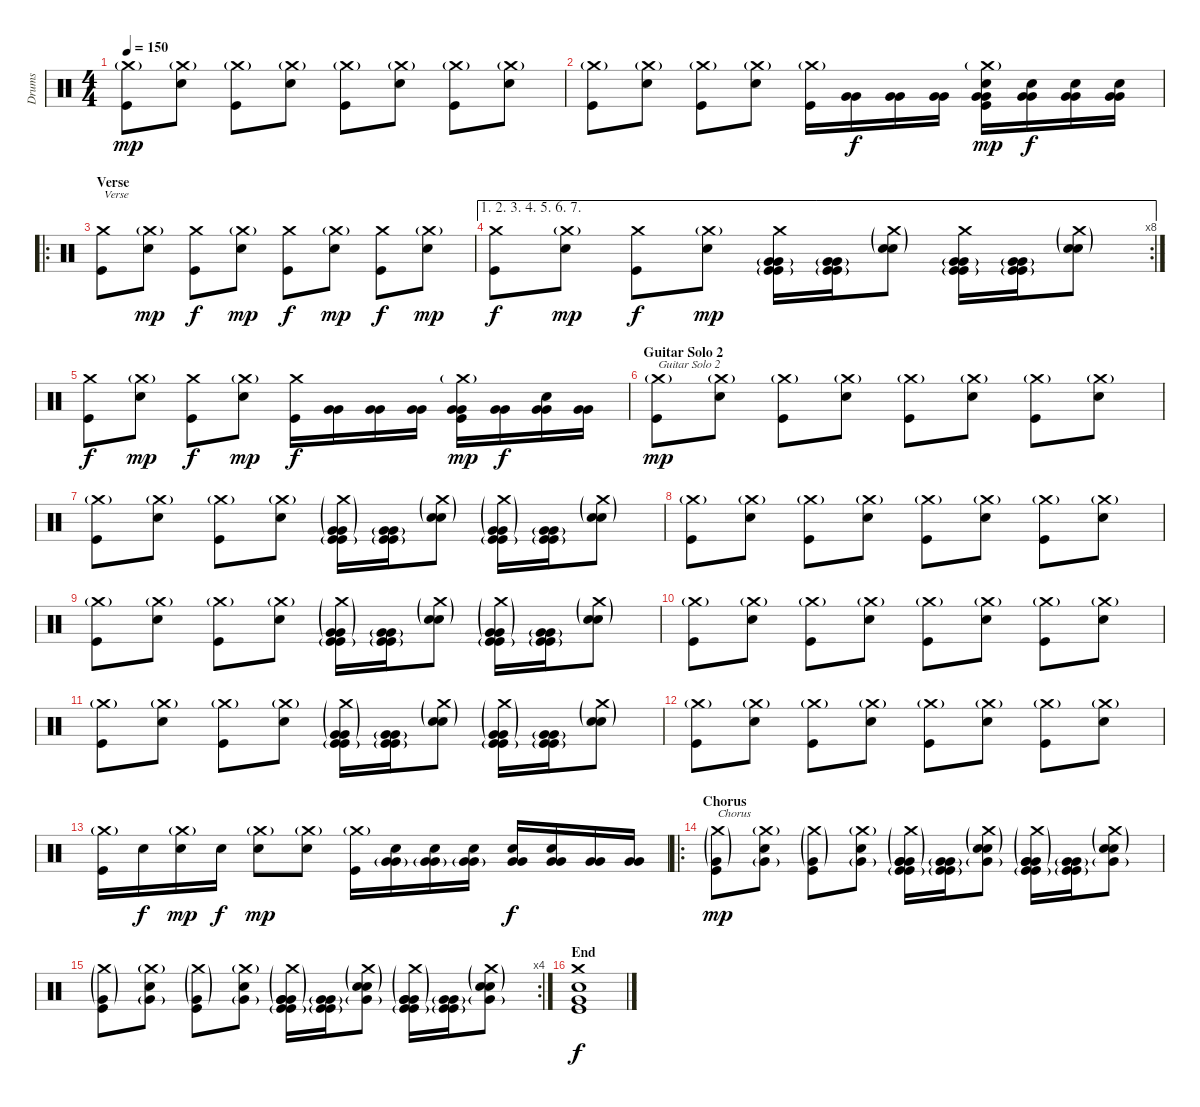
\track ("Drums" "Drums") {instrument percussion}
\staff {score}
\articulation defaults
\ts (4 4)
\tempo 150
\clef neutral
\ks c
("Crash medium (hit)"{g} "Kick (hit)").8{dy mp} ("Crash medium (hit)"{g} "Snare (hit) 2").8 ("Crash medium (hit)"{g} "Kick (hit)").8 ("Crash medium (hit)"{g} "Snare (hit) 2").8 ("Crash medium (hit)"{g} "Kick (hit)").8 ("Crash medium (hit)"{g} "Snare (hit) 2").8 ("Crash medium (hit)"{g} "Kick (hit)").8 ("Crash medium (hit)"{g} "Snare (hit) 2").8 |
("Crash medium (hit)"{g} "Kick (hit)").8 ("Crash medium (hit)"{g} "Snare (hit) 2").8 ("Crash medium (hit)"{g} "Kick (hit)").8 ("Crash medium (hit)"{g} "Snare (hit) 2").8 ("Crash medium (hit)"{g} "Kick (hit)").16 ("Very Low Tom (hit)" "Very Low Tom (hit)").16{dy f} ("Very Low Tom (hit)" "Very Low Tom (hit)").16 ("Very Low Tom (hit)" "Very Low Tom (hit)").16 ("Snare (hit) 2" "Crash medium (hit)"{g} "Very Low Tom (hit)" "Very Low Tom (hit)" "Kick (hit)").16{dy mp} ("Snare (hit) 2" "Very Low Tom (hit)" "Very Low Tom (hit)").16{dy f} ("Very Low Tom (hit)" "Very Low Tom (hit)" "Snare (hit) 2").16 ("Snare (hit) 2" "Very Low Tom (hit)" "Very Low Tom (hit)").16 |
\ro
\section ("" "Verse")
("Crash medium (hit)" "Kick (hit)").8{txt "Verse"} ("Crash medium (hit)"{g} "Snare (hit) 2").8{dy mp} ("Crash medium (hit)" "Kick (hit)").8{dy f} ("Crash medium (hit)"{g} "Snare (hit) 2").8{dy mp} ("Crash medium (hit)" "Kick (hit)").8{dy f} ("Crash medium (hit)"{g} "Snare (hit) 2").8{dy mp} ("Crash medium (hit)" "Kick (hit)").8{dy f} ("Crash medium (hit)"{g} "Snare (hit) 2").8{dy mp} |
\ae (1 2 3 4 5 6 7)
\rc 8
("Crash medium (hit)" "Kick (hit)").8{dy f} ("Crash medium (hit)"{g} "Snare (hit) 2").8{dy mp} ("Crash medium (hit)" "Kick (hit)").8{dy f} ("Crash medium (hit)"{g} "Snare (hit) 2").8{dy mp} ("Crash medium (hit)" "Very Low Tom (hit)"{g} "Very Low Tom (hit)" "Kick (hit)"{g} "Kick (hit)").16 ("Very Low Tom (hit)"{g} "Very Low Tom (hit)" "Kick (hit)"{g} "Kick (hit)").16 ("Crash medium (hit)"{g} "Snare (hit) 2"{g} "Snare (hit) 2").8 ("Crash medium (hit)" "Very Low Tom (hit)"{g} "Very Low Tom (hit)" "Kick (hit)"{g} "Kick (hit)").16 ("Very Low Tom (hit)"{g} "Very Low Tom (hit)" "Kick (hit)"{g} "Kick (hit)").16 ("Crash medium (hit)"{g} "Snare (hit) 2"{g} "Snare (hit) 2").8 |
("Crash medium (hit)" "Kick (hit)").8{dy f} ("Crash medium (hit)"{g} "Snare (hit) 2").8{dy mp} ("Crash medium (hit)" "Kick (hit)").8{dy f} ("Crash medium (hit)"{g} "Snare (hit) 2").8{dy mp} ("Crash medium (hit)" "Kick (hit)").16{dy f} ("Very Low Tom (hit)" "Very Low Tom (hit)").16 ("Very Low Tom (hit)" "Very Low Tom (hit)").16 ("Very Low Tom (hit)" "Very Low Tom (hit)").16 ("Crash medium (hit)"{g} "Very Low Tom (hit)" "Very Low Tom (hit)" "Kick (hit)").16{dy mp} ("Very Low Tom (hit)" "Very Low Tom (hit)").16{dy f} ("Very Low Tom (hit)" "Very Low Tom (hit)" "Snare (hit) 2").16 ("Very Low Tom (hit)" "Very Low Tom (hit)").16 |
\section ("" "Guitar Solo 2")
("Crash medium (hit)"{g} "Kick (hit)").8{txt "Guitar Solo 2" dy mp} ("Crash medium (hit)"{g} "Snare (hit) 2").8 ("Crash medium (hit)"{g} "Kick (hit)").8 ("Crash medium (hit)"{g} "Snare (hit) 2").8 ("Crash medium (hit)"{g} "Kick (hit)").8 ("Crash medium (hit)"{g} "Snare (hit) 2").8 ("Crash medium (hit)"{g} "Kick (hit)").8 ("Crash medium (hit)"{g} "Snare (hit) 2").8 |
("Crash medium (hit)"{g} "Kick (hit)").8 ("Crash medium (hit)"{g} "Snare (hit) 2").8 ("Crash medium (hit)"{g} "Kick (hit)").8 ("Crash medium (hit)"{g} "Snare (hit) 2").8 ("Crash medium (hit)"{g} "Very Low Tom (hit)"{g} "Very Low Tom (hit)" "Kick (hit)"{g} "Kick (hit)").16 ("Very Low Tom (hit)"{g} "Very Low Tom (hit)" "Kick (hit)"{g} "Kick (hit)").16 ("Crash medium (hit)"{g} "Snare (hit) 2"{g} "Snare (hit) 2").8 ("Crash medium (hit)"{g} "Very Low Tom (hit)"{g} "Very Low Tom (hit)" "Kick (hit)"{g} "Kick (hit)").16 ("Very Low Tom (hit)"{g} "Very Low Tom (hit)" "Kick (hit)"{g} "Kick (hit)").16 ("Crash medium (hit)"{g} "Snare (hit) 2"{g} "Snare (hit) 2").8 |
("Crash medium (hit)"{g} "Kick (hit)").8 ("Crash medium (hit)"{g} "Snare (hit) 2").8 ("Crash medium (hit)"{g} "Kick (hit)").8 ("Crash medium (hit)"{g} "Snare (hit) 2").8 ("Crash medium (hit)"{g} "Kick (hit)").8 ("Crash medium (hit)"{g} "Snare (hit) 2").8 ("Crash medium (hit)"{g} "Kick (hit)").8 ("Crash medium (hit)"{g} "Snare (hit) 2").8 |
("Crash medium (hit)"{g} "Kick (hit)").8 ("Crash medium (hit)"{g} "Snare (hit) 2").8 ("Crash medium (hit)"{g} "Kick (hit)").8 ("Crash medium (hit)"{g} "Snare (hit) 2").8 ("Crash medium (hit)"{g} "Very Low Tom (hit)"{g} "Very Low Tom (hit)" "Kick (hit)"{g} "Kick (hit)").16 ("Very Low Tom (hit)"{g} "Very Low Tom (hit)" "Kick (hit)"{g} "Kick (hit)").16 ("Crash medium (hit)"{g} "Snare (hit) 2"{g} "Snare (hit) 2").8 ("Crash medium (hit)"{g} "Very Low Tom (hit)"{g} "Very Low Tom (hit)" "Kick (hit)"{g} "Kick (hit)").16 ("Very Low Tom (hit)"{g} "Very Low Tom (hit)" "Kick (hit)"{g} "Kick (hit)").16 ("Crash medium (hit)"{g} "Snare (hit) 2"{g} "Snare (hit) 2").8 |
("Crash medium (hit)"{g} "Kick (hit)").8 ("Crash medium (hit)"{g} "Snare (hit) 2").8 ("Crash medium (hit)"{g} "Kick (hit)").8 ("Crash medium (hit)"{g} "Snare (hit) 2").8 ("Crash medium (hit)"{g} "Kick (hit)").8 ("Crash medium (hit)"{g} "Snare (hit) 2").8 ("Crash medium (hit)"{g} "Kick (hit)").8 ("Crash medium (hit)"{g} "Snare (hit) 2").8 |
("Crash medium (hit)"{g} "Kick (hit)").8 ("Crash medium (hit)"{g} "Snare (hit) 2").8 ("Crash medium (hit)"{g} "Kick (hit)").8 ("Crash medium (hit)"{g} "Snare (hit) 2").8 ("Crash medium (hit)"{g} "Very Low Tom (hit)"{g} "Very Low Tom (hit)" "Kick (hit)"{g} "Kick (hit)").16 ("Very Low Tom (hit)"{g} "Very Low Tom (hit)" "Kick (hit)"{g} "Kick (hit)").16 ("Crash medium (hit)"{g} "Snare (hit) 2"{g} "Snare (hit) 2").8 ("Crash medium (hit)"{g} "Very Low Tom (hit)"{g} "Very Low Tom (hit)" "Kick (hit)"{g} "Kick (hit)").16 ("Very Low Tom (hit)"{g} "Very Low Tom (hit)" "Kick (hit)"{g} "Kick (hit)").16 ("Crash medium (hit)"{g} "Snare (hit) 2"{g} "Snare (hit) 2").8 |
("Crash medium (hit)"{g} "Kick (hit)").8 ("Crash medium (hit)"{g} "Snare (hit) 2").8 ("Crash medium (hit)"{g} "Kick (hit)").8 ("Crash medium (hit)"{g} "Snare (hit) 2").8 ("Crash medium (hit)"{g} "Kick (hit)").8 ("Crash medium (hit)"{g} "Snare (hit) 2").8 ("Crash medium (hit)"{g} "Kick (hit)").8 ("Crash medium (hit)"{g} "Snare (hit) 2").8 |
("Crash medium (hit)"{g} "Kick (hit)").16 "Snare (hit) 2".16{dy f} ("Crash medium (hit)"{g} "Snare (hit) 2").16{dy mp} "Snare (hit) 2".16{dy f} ("Crash medium (hit)"{g} "Snare (hit) 2").8{dy mp} ("Crash medium (hit)"{g} "Snare (hit) 2").8 ("Crash medium (hit)"{g} "Kick (hit)").16 ("Very Low Tom (hit)"{g} "Very Low Tom (hit)" "Snare (hit) 2").16 ("Very Low Tom (hit)"{g} "Very Low Tom (hit)" "Snare (hit) 2").16 ("Very Low Tom (hit)"{g} "Very Low Tom (hit)" "Snare (hit) 2").16 ("Very Low Tom (hit)" "Very Low Tom (hit)" "Snare (hit) 2").16{dy f} ("Very Low Tom (hit)" "Very Low Tom (hit)" "Snare (hit) 2").16 ("Very Low Tom (hit)" "Very Low Tom (hit)").16 ("Very Low Tom (hit)" "Very Low Tom (hit)").16 |
\ro
\section ("" "Chorus")
("Very Low Tom (hit)"{g} "Crash medium (hit)"{g} "Kick (hit)").8{txt "Chorus" dy mp} ("Very Low Tom (hit)"{g} "Crash medium (hit)"{g} "Snare (hit) 2").8 ("Very Low Tom (hit)"{g} "Crash medium (hit)"{g} "Kick (hit)").8 ("Very Low Tom (hit)"{g} "Crash medium (hit)"{g} "Snare (hit) 2").8 ("Very Low Tom (hit)"{g} "Crash medium (hit)"{g} "Very Low Tom (hit)"{g} "Very Low Tom (hit)" "Kick (hit)"{g} "Kick (hit)").16 ("Very Low Tom (hit)"{g} "Very Low Tom (hit)" "Kick (hit)"{g} "Kick (hit)").16 ("Very Low Tom (hit)"{g} "Crash medium (hit)"{g} "Snare (hit) 2"{g} "Snare (hit) 2").8 ("Very Low Tom (hit)"{g} "Crash medium (hit)"{g} "Very Low Tom (hit)"{g} "Very Low Tom (hit)" "Kick (hit)"{g} "Kick (hit)").16 ("Very Low Tom (hit)"{g} "Very Low Tom (hit)" "Kick (hit)"{g} "Kick (hit)").16 ("Very Low Tom (hit)"{g} "Crash medium (hit)"{g} "Snare (hit) 2"{g} "Snare (hit) 2").8 |
\rc 4
("Very Low Tom (hit)"{g} "Crash medium (hit)"{g} "Kick (hit)").8 ("Very Low Tom (hit)"{g} "Crash medium (hit)"{g} "Snare (hit) 2").8 ("Very Low Tom (hit)"{g} "Crash medium (hit)"{g} "Kick (hit)").8 ("Very Low Tom (hit)"{g} "Crash medium (hit)"{g} "Snare (hit) 2").8 ("Very Low Tom (hit)"{g} "Crash medium (hit)"{g} "Very Low Tom (hit)"{g} "Very Low Tom (hit)" "Kick (hit)"{g} "Kick (hit)").16 ("Very Low Tom (hit)"{g} "Very Low Tom (hit)" "Kick (hit)"{g} "Kick (hit)").16 ("Very Low Tom (hit)"{g} "Crash medium (hit)"{g} "Snare (hit) 2"{g} "Snare (hit) 2").8 ("Very Low Tom (hit)"{g} "Crash medium (hit)"{g} "Very Low Tom (hit)"{g} "Very Low Tom (hit)" "Kick (hit)"{g} "Kick (hit)").16 ("Very Low Tom (hit)"{g} "Very Low Tom (hit)" "Kick (hit)"{g} "Kick (hit)").16 ("Very Low Tom (hit)"{g} "Crash medium (hit)"{g} "Snare (hit) 2"{g} "Snare (hit) 2").8 |
\section ("" "End")
("Crash medium (hit)" "Snare (hit) 2" "Very Low Tom (hit)" "Kick (hit)").1{dy f}
